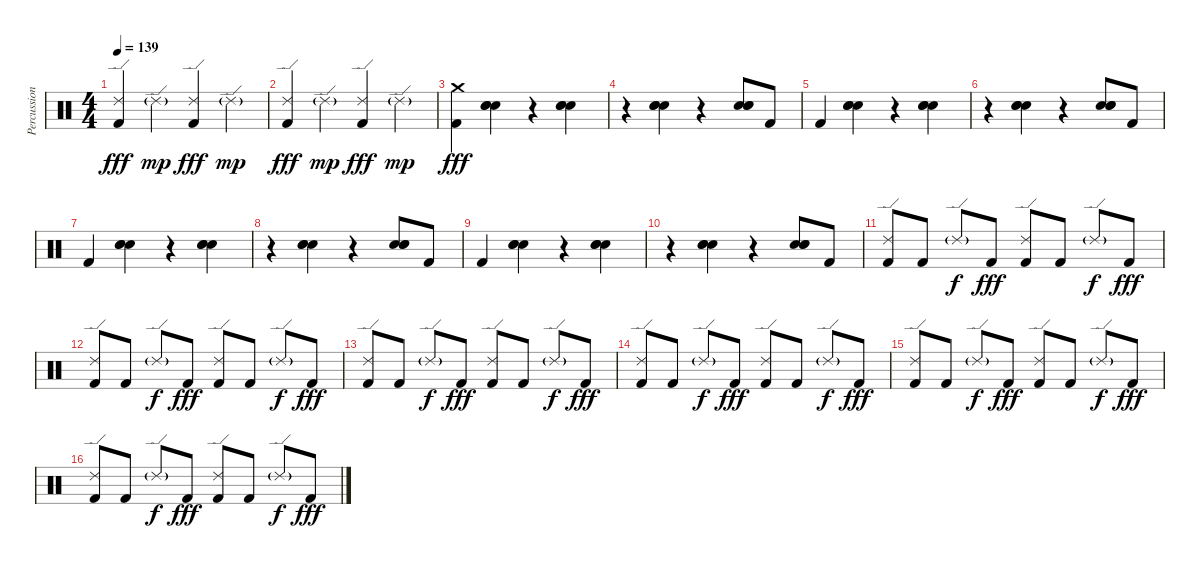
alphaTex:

\track ("Percussion" "Percussion") {instrument percussion}
\staff {score}
\articulation defaults
\ts (4 4)
\tempo 139
\clef neutral
\ks c
("Ride (edge) 2" "Kick (hit) 2").4{dy fff} "Ride (edge) 2"{g}.4{dy mp} ("Ride (edge) 2" "Kick (hit) 2").4{dy fff} "Ride (edge) 2"{g}.4{dy mp} |
("Ride (edge) 2" "Kick (hit) 2").4{dy fff} "Ride (edge) 2"{g}.4{dy mp} ("Ride (edge) 2" "Kick (hit) 2").4{dy fff} "Ride (edge) 2"{g}.4{dy mp} |
("Crash medium (hit)" "Kick (hit) 2").4{dy fff} ("Hand Clap (hit)" "Hand Clap (hit)" "Hand Clap (hit)").4{bd 60} r.4 ("Hand Clap (hit)" "Hand Clap (hit)" "Hand Clap (hit)").4{bd 60} |
r.4 ("Hand Clap (hit)" "Hand Clap (hit)" "Hand Clap (hit)").4{bd 60} r.4 ("Hand Clap (hit)" "Hand Clap (hit)" "Hand Clap (hit)").8{bd 60} "Kick (hit) 2".8 |
"Kick (hit) 2".4 ("Hand Clap (hit)" "Hand Clap (hit)" "Hand Clap (hit)").4{bd 60} r.4 ("Hand Clap (hit)" "Hand Clap (hit)" "Hand Clap (hit)").4{bd 60} |
r.4 ("Hand Clap (hit)" "Hand Clap (hit)" "Hand Clap (hit)").4{bd 60} r.4 ("Hand Clap (hit)" "Hand Clap (hit)" "Hand Clap (hit)").8{bd 60} "Kick (hit) 2".8 |
"Kick (hit) 2".4 ("Hand Clap (hit)" "Hand Clap (hit)" "Hand Clap (hit)").4{bd 60} r.4 ("Hand Clap (hit)" "Hand Clap (hit)" "Hand Clap (hit)").4{bd 60} |
r.4 ("Hand Clap (hit)" "Hand Clap (hit)" "Hand Clap (hit)").4{bd 60} r.4 ("Hand Clap (hit)" "Hand Clap (hit)" "Hand Clap (hit)").8{bd 60} "Kick (hit) 2".8 |
"Kick (hit) 2".4 ("Hand Clap (hit)" "Hand Clap (hit)" "Hand Clap (hit)").4{bd 60} r.4 ("Hand Clap (hit)" "Hand Clap (hit)" "Hand Clap (hit)").4{bd 60} |
r.4 ("Hand Clap (hit)" "Hand Clap (hit)" "Hand Clap (hit)").4{bd 60} r.4 ("Hand Clap (hit)" "Hand Clap (hit)" "Hand Clap (hit)").8{bd 60} "Kick (hit) 2".8 |
("Ride (edge) 2" "Kick (hit) 2").8 "Kick (hit) 2".8 "Ride (edge) 2"{g}.8{dy f} "Kick (hit) 2".8{dy fff} ("Ride (edge) 2" "Kick (hit) 2").8 "Kick (hit) 2".8 "Ride (edge) 2"{g}.8{dy f} "Kick (hit) 2".8{dy fff} |
("Ride (edge) 2" "Kick (hit) 2").8 "Kick (hit) 2".8 "Ride (edge) 2"{g}.8{dy f} "Kick (hit) 2".8{dy fff} ("Ride (edge) 2" "Kick (hit) 2").8 "Kick (hit) 2".8 "Ride (edge) 2"{g}.8{dy f} "Kick (hit) 2".8{dy fff} |
("Ride (edge) 2" "Kick (hit) 2").8 "Kick (hit) 2".8 "Ride (edge) 2"{g}.8{dy f} "Kick (hit) 2".8{dy fff} ("Ride (edge) 2" "Kick (hit) 2").8 "Kick (hit) 2".8 "Ride (edge) 2"{g}.8{dy f} "Kick (hit) 2".8{dy fff} |
("Ride (edge) 2" "Kick (hit) 2").8 "Kick (hit) 2".8 "Ride (edge) 2"{g}.8{dy f} "Kick (hit) 2".8{dy fff} ("Ride (edge) 2" "Kick (hit) 2").8 "Kick (hit) 2".8 "Ride (edge) 2"{g}.8{dy f} "Kick (hit) 2".8{dy fff} |
("Ride (edge) 2" "Kick (hit) 2").8 "Kick (hit) 2".8 "Ride (edge) 2"{g}.8{dy f} "Kick (hit) 2".8{dy fff} ("Ride (edge) 2" "Kick (hit) 2").8 "Kick (hit) 2".8 "Ride (edge) 2"{g}.8{dy f} "Kick (hit) 2".8{dy fff} |
("Ride (edge) 2" "Kick (hit) 2").8 "Kick (hit) 2".8 "Ride (edge) 2"{g}.8{dy f} "Kick (hit) 2".8{dy fff} ("Ride (edge) 2" "Kick (hit) 2").8 "Kick (hit) 2".8 "Ride (edge) 2"{g}.8{dy f} "Kick (hit) 2".8{dy fff}
